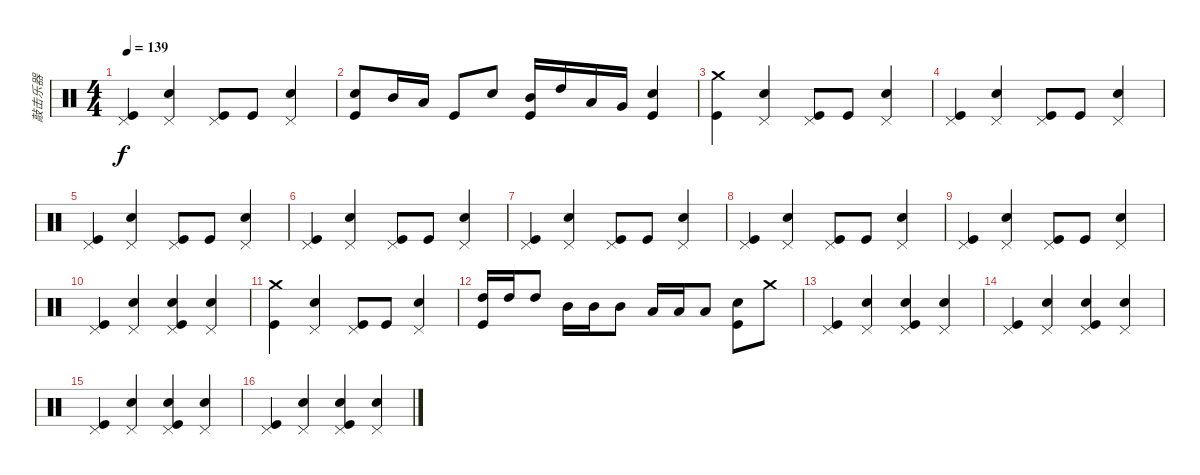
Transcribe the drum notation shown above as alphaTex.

\track ("敲击乐器" "敲击乐器") {instrument percussion}
\staff {score}
\articulation defaults
\ts (4 4)
\tempo 139
\clef neutral
\ks c
("Pedal Hi-Hat (hit)" "Kick (hit)").4{dy f} ("Pedal Hi-Hat (hit)" "Snare (hit) 2").4 ("Pedal Hi-Hat (hit)" "Kick (hit)").8 "Kick (hit)".8 ("Pedal Hi-Hat (hit)" "Snare (hit) 2").4 |
("Snare (hit) 2" "Kick (hit)").8 "Mid Tom (hit)".16 "Low Tom (hit)".16 "Kick (hit)".8 "Snare (hit) 2".8 ("Mid Tom (hit)" "Kick (hit)").16 "High Tom (hit)".16 "Low Tom (hit)".16 "Very Low Tom (hit)".16 ("Snare (hit) 2" "Kick (hit)").4 |
("Crash medium (hit)" "Kick (hit)").4 ("Pedal Hi-Hat (hit)" "Snare (hit) 2").4 ("Pedal Hi-Hat (hit)" "Kick (hit)").8 "Kick (hit)".8 ("Pedal Hi-Hat (hit)" "Snare (hit) 2").4 |
("Pedal Hi-Hat (hit)" "Kick (hit)").4 ("Pedal Hi-Hat (hit)" "Snare (hit) 2").4 ("Pedal Hi-Hat (hit)" "Kick (hit)").8 "Kick (hit)".8 ("Pedal Hi-Hat (hit)" "Snare (hit) 2").4 |
("Pedal Hi-Hat (hit)" "Kick (hit)").4 ("Pedal Hi-Hat (hit)" "Snare (hit) 2").4 ("Pedal Hi-Hat (hit)" "Kick (hit)").8 "Kick (hit)".8 ("Pedal Hi-Hat (hit)" "Snare (hit) 2").4 |
("Pedal Hi-Hat (hit)" "Kick (hit)").4 ("Pedal Hi-Hat (hit)" "Snare (hit) 2").4 ("Pedal Hi-Hat (hit)" "Kick (hit)").8 "Kick (hit)".8 ("Pedal Hi-Hat (hit)" "Snare (hit) 2").4 |
("Pedal Hi-Hat (hit)" "Kick (hit)").4 ("Pedal Hi-Hat (hit)" "Snare (hit) 2").4 ("Pedal Hi-Hat (hit)" "Kick (hit)").8 "Kick (hit)".8 ("Pedal Hi-Hat (hit)" "Snare (hit) 2").4 |
("Pedal Hi-Hat (hit)" "Kick (hit)").4 ("Pedal Hi-Hat (hit)" "Snare (hit) 2").4 ("Pedal Hi-Hat (hit)" "Kick (hit)").8 "Kick (hit)".8 ("Pedal Hi-Hat (hit)" "Snare (hit) 2").4 |
("Pedal Hi-Hat (hit)" "Kick (hit)").4 ("Pedal Hi-Hat (hit)" "Snare (hit) 2").4 ("Pedal Hi-Hat (hit)" "Kick (hit)").8 "Kick (hit)".8 ("Pedal Hi-Hat (hit)" "Snare (hit) 2").4 |
("Pedal Hi-Hat (hit)" "Kick (hit)").4 ("Pedal Hi-Hat (hit)" "Snare (hit) 2").4 ("Pedal Hi-Hat (hit)" "Snare (hit) 2" "Kick (hit)").4 ("Pedal Hi-Hat (hit)" "Snare (hit) 2").4 |
("Crash medium (hit)" "Kick (hit)").4 ("Pedal Hi-Hat (hit)" "Snare (hit) 2").4 ("Pedal Hi-Hat (hit)" "Kick (hit)").8 "Kick (hit)".8 ("Pedal Hi-Hat (hit)" "Snare (hit) 2").4 |
("High Tom (hit)" "Kick (hit)").16 "High Tom (hit)".16 "High Tom (hit)".8 "Mid Tom (hit)".16 "Mid Tom (hit)".16 "Mid Tom (hit)".8 "Low Tom (hit)".16 "Low Tom (hit)".16 "Low Tom (hit)".8 ("Snare (hit) 2" "Kick (hit)").8 "Crash medium (hit)".8 |
("Pedal Hi-Hat (hit)" "Kick (hit)").4 ("Pedal Hi-Hat (hit)" "Snare (hit) 2").4 ("Pedal Hi-Hat (hit)" "Snare (hit) 2" "Kick (hit)").4 ("Pedal Hi-Hat (hit)" "Snare (hit) 2").4 |
("Pedal Hi-Hat (hit)" "Kick (hit)").4 ("Pedal Hi-Hat (hit)" "Snare (hit) 2").4 ("Pedal Hi-Hat (hit)" "Snare (hit) 2" "Kick (hit)").4 ("Pedal Hi-Hat (hit)" "Snare (hit) 2").4 |
("Pedal Hi-Hat (hit)" "Kick (hit)").4 ("Pedal Hi-Hat (hit)" "Snare (hit) 2").4 ("Pedal Hi-Hat (hit)" "Snare (hit) 2" "Kick (hit)").4 ("Pedal Hi-Hat (hit)" "Snare (hit) 2").4 |
("Pedal Hi-Hat (hit)" "Kick (hit)").4 ("Pedal Hi-Hat (hit)" "Snare (hit) 2").4 ("Pedal Hi-Hat (hit)" "Snare (hit) 2" "Kick (hit)").4 ("Pedal Hi-Hat (hit)" "Snare (hit) 2").4
